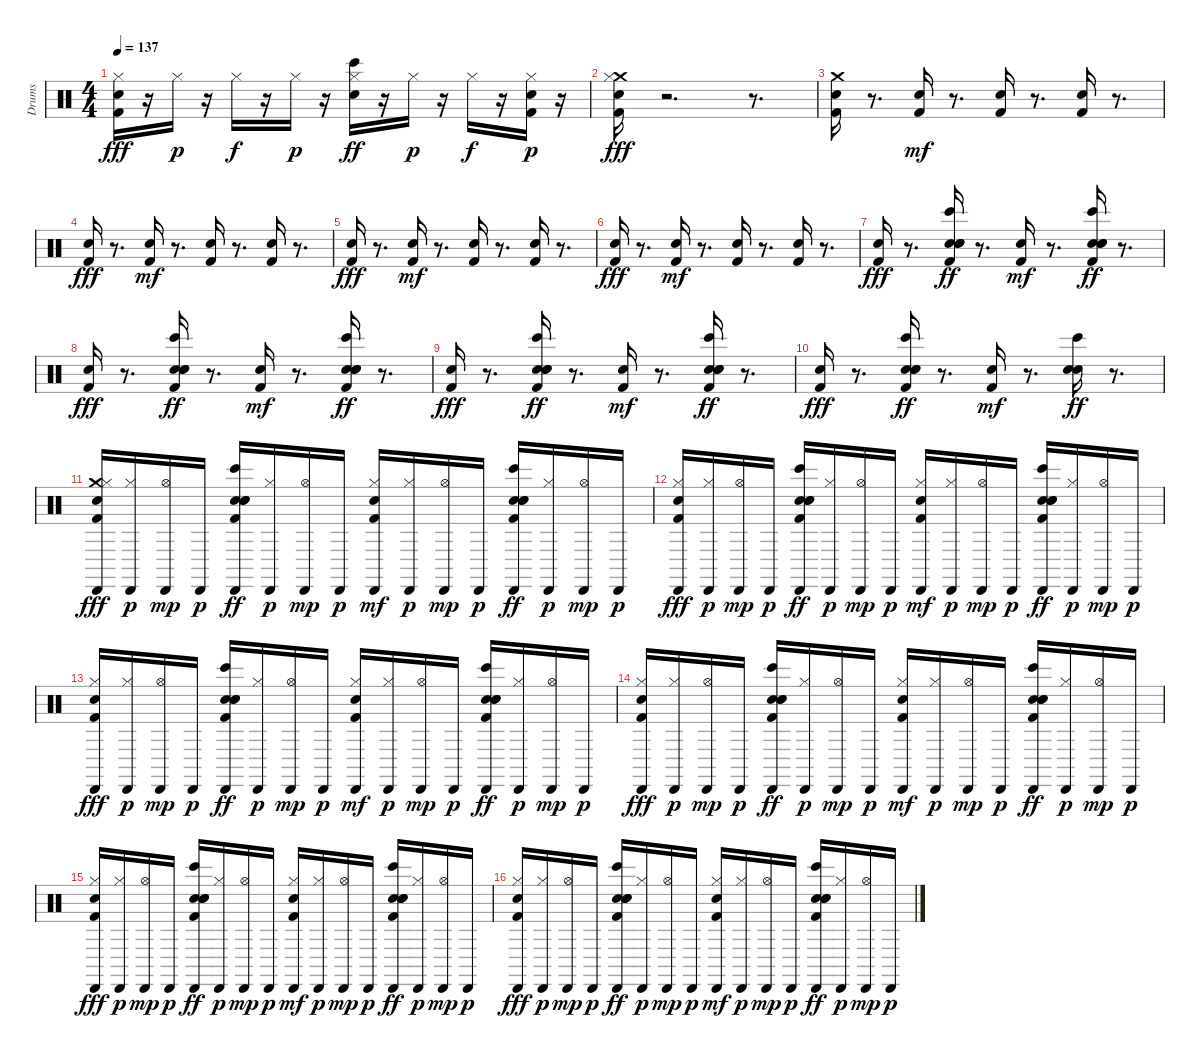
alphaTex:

\track ("Drums" "Drums") {instrument percussion}
\staff {score}
\articulation defaults
\ts (4 4)
\tempo 137
\clef neutral
\ks c
("Kick (hit) 2" "Snare (hit)" "Hi-Hat (closed)").16{dy fff} r.16 "Hi-Hat (closed)".16{dy p} r.16 "Hi-Hat (closed)".16{dy f} r.16 "Hi-Hat (closed)".16{dy p} r.16 ("Snare (hit) 2" "Bongo High (hit)" "Hi-Hat (closed)").16{dy ff} r.16 "Hi-Hat (closed)".16{dy p} r.16 "Hi-Hat (closed)".16{dy f} r.16 ("Kick (hit) 2" "Snare (hit)" "Hi-Hat (closed)").16{dy p} r.16 |
("Crash medium (hit)" "Kick (hit) 2" "Snare (hit)" "Hi-Hat (closed)").16{dy fff} r.2{d} r.8{d} |
("Crash medium (hit)" "Kick (hit) 2" "Snare (hit)").16 r.8{d} ("Snare (hit)" "Kick (hit) 2").16{dy mf} r.8{d} ("Snare (hit)" "Kick (hit) 2").16 r.8{d} ("Snare (hit)" "Kick (hit) 2").16 r.8{d} |
("Kick (hit) 2" "Snare (hit)").16{dy fff} r.8{d} ("Snare (hit)" "Kick (hit) 2").16{dy mf} r.8{d} ("Snare (hit)" "Kick (hit) 2").16 r.8{d} ("Snare (hit)" "Kick (hit) 2").16 r.8{d} |
("Kick (hit) 2" "Snare (hit)").16{dy fff} r.8{d} ("Snare (hit)" "Kick (hit) 2").16{dy mf} r.8{d} ("Snare (hit)" "Kick (hit) 2").16 r.8{d} ("Snare (hit)" "Kick (hit) 2").16 r.8{d} |
("Kick (hit) 2" "Snare (hit)").16{dy fff} r.8{d} ("Snare (hit)" "Kick (hit) 2").16{dy mf} r.8{d} ("Snare (hit)" "Kick (hit) 2").16 r.8{d} ("Snare (hit)" "Kick (hit) 2").16 r.8{d} |
("Kick (hit) 2" "Snare (hit)").16{dy fff} r.8{d} ("Snare (hit)" "Kick (hit) 2" "Hand Clap (hit)" "Snare (hit) 2" "Bongo High (hit)").16{dy ff} r.8{d} ("Snare (hit)" "Kick (hit) 2").16{dy mf} r.8{d} ("Snare (hit)" "Kick (hit) 2" "Hand Clap (hit)" "Snare (hit) 2" "Bongo High (hit)").16{dy ff} r.8{d} |
("Kick (hit) 2" "Snare (hit)").16{dy fff} r.8{d} ("Snare (hit)" "Kick (hit) 2" "Hand Clap (hit)" "Snare (hit) 2" "Bongo High (hit)").16{dy ff} r.8{d} ("Snare (hit)" "Kick (hit) 2").16{dy mf} r.8{d} ("Snare (hit)" "Kick (hit) 2" "Hand Clap (hit)" "Snare (hit) 2" "Bongo High (hit)").16{dy ff} r.8{d} |
("Kick (hit) 2" "Snare (hit)").16{dy fff} r.8{d} ("Snare (hit)" "Kick (hit) 2" "Hand Clap (hit)" "Snare (hit) 2" "Bongo High (hit)").16{dy ff} r.8{d} ("Snare (hit)" "Kick (hit) 2").16{dy mf} r.8{d} ("Snare (hit)" "Kick (hit) 2" "Hand Clap (hit)" "Snare (hit) 2" "Bongo High (hit)").16{dy ff} r.8{d} |
("Kick (hit) 2" "Snare (hit)").16{dy fff} r.8{d} ("Snare (hit)" "Kick (hit) 2" "Hand Clap (hit)" "Snare (hit) 2" "Bongo High (hit)").16{dy ff} r.8{d} ("Snare (hit)" "Kick (hit) 2").16{dy mf} r.8{d} ("Hand Clap (hit)" "Snare (hit) 2" "Bongo High (hit)").16{dy ff} r.8{d} |
("Crash medium (hit)" "Cabasa (hit)" "Kick (hit) 2" "Snare (hit)" "Hi-Hat (closed)").16{dy fff} ("Cabasa (hit)" "Hi-Hat (closed)").16{dy p} ("Cabasa (hit)" "Hi-Hat (open)").16{dy mp} "Cabasa (hit)".16{dy p} ("Cabasa (hit)" "Snare (hit)" "Kick (hit) 2" "Hand Clap (hit)" "Snare (hit) 2" "Bongo High (hit)").16{dy ff} ("Cabasa (hit)" "Hi-Hat (closed)").16{dy p} ("Cabasa (hit)" "Hi-Hat (open)").16{dy mp} "Cabasa (hit)".16{dy p} ("Cabasa (hit)" "Snare (hit)" "Kick (hit) 2" "Hi-Hat (closed)").16{dy mf} ("Cabasa (hit)" "Hi-Hat (closed)").16{dy p} ("Cabasa (hit)" "Hi-Hat (open)").16{dy mp} "Cabasa (hit)".16{dy p} ("Cabasa (hit)" "Snare (hit)" "Kick (hit) 2" "Hand Clap (hit)" "Snare (hit) 2" "Bongo High (hit)").16{dy ff} ("Cabasa (hit)" "Hi-Hat (closed)").16{dy p} ("Cabasa (hit)" "Hi-Hat (open)").16{dy mp} "Cabasa (hit)".16{dy p} |
("Cabasa (hit)" "Kick (hit) 2" "Snare (hit)" "Hi-Hat (closed)").16{dy fff} ("Cabasa (hit)" "Hi-Hat (closed)").16{dy p} ("Cabasa (hit)" "Hi-Hat (open)").16{dy mp} "Cabasa (hit)".16{dy p} ("Cabasa (hit)" "Snare (hit)" "Kick (hit) 2" "Hand Clap (hit)" "Snare (hit) 2" "Bongo High (hit)").16{dy ff} ("Cabasa (hit)" "Hi-Hat (closed)").16{dy p} ("Cabasa (hit)" "Hi-Hat (open)").16{dy mp} "Cabasa (hit)".16{dy p} ("Cabasa (hit)" "Snare (hit)" "Kick (hit) 2" "Hi-Hat (closed)").16{dy mf} ("Cabasa (hit)" "Hi-Hat (closed)").16{dy p} ("Cabasa (hit)" "Hi-Hat (open)").16{dy mp} "Cabasa (hit)".16{dy p} ("Cabasa (hit)" "Snare (hit)" "Kick (hit) 2" "Hand Clap (hit)" "Snare (hit) 2" "Bongo High (hit)").16{dy ff} ("Cabasa (hit)" "Hi-Hat (closed)").16{dy p} ("Cabasa (hit)" "Hi-Hat (open)").16{dy mp} "Cabasa (hit)".16{dy p} |
("Cabasa (hit)" "Kick (hit) 2" "Snare (hit)" "Hi-Hat (closed)").16{dy fff} ("Cabasa (hit)" "Hi-Hat (closed)").16{dy p} ("Cabasa (hit)" "Hi-Hat (open)").16{dy mp} "Cabasa (hit)".16{dy p} ("Cabasa (hit)" "Snare (hit)" "Kick (hit) 2" "Hand Clap (hit)" "Snare (hit) 2" "Bongo High (hit)").16{dy ff} ("Cabasa (hit)" "Hi-Hat (closed)").16{dy p} ("Cabasa (hit)" "Hi-Hat (open)").16{dy mp} "Cabasa (hit)".16{dy p} ("Cabasa (hit)" "Snare (hit)" "Kick (hit) 2" "Hi-Hat (closed)").16{dy mf} ("Cabasa (hit)" "Hi-Hat (closed)").16{dy p} ("Cabasa (hit)" "Hi-Hat (open)").16{dy mp} "Cabasa (hit)".16{dy p} ("Cabasa (hit)" "Snare (hit)" "Kick (hit) 2" "Hand Clap (hit)" "Snare (hit) 2" "Bongo High (hit)").16{dy ff} ("Cabasa (hit)" "Hi-Hat (closed)").16{dy p} ("Cabasa (hit)" "Hi-Hat (open)").16{dy mp} "Cabasa (hit)".16{dy p} |
("Cabasa (hit)" "Kick (hit) 2" "Snare (hit)" "Hi-Hat (closed)").16{dy fff} ("Cabasa (hit)" "Hi-Hat (closed)").16{dy p} ("Cabasa (hit)" "Hi-Hat (open)").16{dy mp} "Cabasa (hit)".16{dy p} ("Cabasa (hit)" "Snare (hit)" "Kick (hit) 2" "Hand Clap (hit)" "Snare (hit) 2" "Bongo High (hit)").16{dy ff} ("Cabasa (hit)" "Hi-Hat (closed)").16{dy p} ("Cabasa (hit)" "Hi-Hat (open)").16{dy mp} "Cabasa (hit)".16{dy p} ("Cabasa (hit)" "Snare (hit)" "Kick (hit) 2" "Hi-Hat (closed)").16{dy mf} ("Cabasa (hit)" "Hi-Hat (closed)").16{dy p} ("Cabasa (hit)" "Hi-Hat (open)").16{dy mp} "Cabasa (hit)".16{dy p} ("Cabasa (hit)" "Snare (hit)" "Kick (hit) 2" "Hand Clap (hit)" "Snare (hit) 2" "Bongo High (hit)").16{dy ff} ("Cabasa (hit)" "Hi-Hat (closed)").16{dy p} ("Cabasa (hit)" "Hi-Hat (open)").16{dy mp} "Cabasa (hit)".16{dy p} |
("Cabasa (hit)" "Kick (hit) 2" "Snare (hit)" "Hi-Hat (closed)").16{dy fff} ("Cabasa (hit)" "Hi-Hat (closed)").16{dy p} ("Cabasa (hit)" "Hi-Hat (open)").16{dy mp} "Cabasa (hit)".16{dy p} ("Cabasa (hit)" "Snare (hit)" "Kick (hit) 2" "Hand Clap (hit)" "Snare (hit) 2" "Bongo High (hit)").16{dy ff} ("Cabasa (hit)" "Hi-Hat (closed)").16{dy p} ("Cabasa (hit)" "Hi-Hat (open)").16{dy mp} "Cabasa (hit)".16{dy p} ("Cabasa (hit)" "Snare (hit)" "Kick (hit) 2" "Hi-Hat (closed)").16{dy mf} ("Cabasa (hit)" "Hi-Hat (closed)").16{dy p} ("Cabasa (hit)" "Hi-Hat (open)").16{dy mp} "Cabasa (hit)".16{dy p} ("Cabasa (hit)" "Snare (hit)" "Kick (hit) 2" "Hand Clap (hit)" "Snare (hit) 2" "Bongo High (hit)").16{dy ff} ("Cabasa (hit)" "Hi-Hat (closed)").16{dy p} ("Cabasa (hit)" "Hi-Hat (open)").16{dy mp} "Cabasa (hit)".16{dy p} |
("Cabasa (hit)" "Kick (hit) 2" "Snare (hit)" "Hi-Hat (closed)").16{dy fff} ("Cabasa (hit)" "Hi-Hat (closed)").16{dy p} ("Cabasa (hit)" "Hi-Hat (open)").16{dy mp} "Cabasa (hit)".16{dy p} ("Cabasa (hit)" "Snare (hit)" "Kick (hit) 2" "Hand Clap (hit)" "Snare (hit) 2" "Bongo High (hit)").16{dy ff} ("Cabasa (hit)" "Hi-Hat (closed)").16{dy p} ("Cabasa (hit)" "Hi-Hat (open)").16{dy mp} "Cabasa (hit)".16{dy p} ("Cabasa (hit)" "Snare (hit)" "Kick (hit) 2" "Hi-Hat (closed)").16{dy mf} ("Cabasa (hit)" "Hi-Hat (closed)").16{dy p} ("Cabasa (hit)" "Hi-Hat (open)").16{dy mp} "Cabasa (hit)".16{dy p} ("Cabasa (hit)" "Snare (hit)" "Kick (hit) 2" "Hand Clap (hit)" "Snare (hit) 2" "Bongo High (hit)").16{dy ff} ("Cabasa (hit)" "Hi-Hat (closed)").16{dy p} ("Cabasa (hit)" "Hi-Hat (open)").16{dy mp} "Cabasa (hit)".16{dy p}
